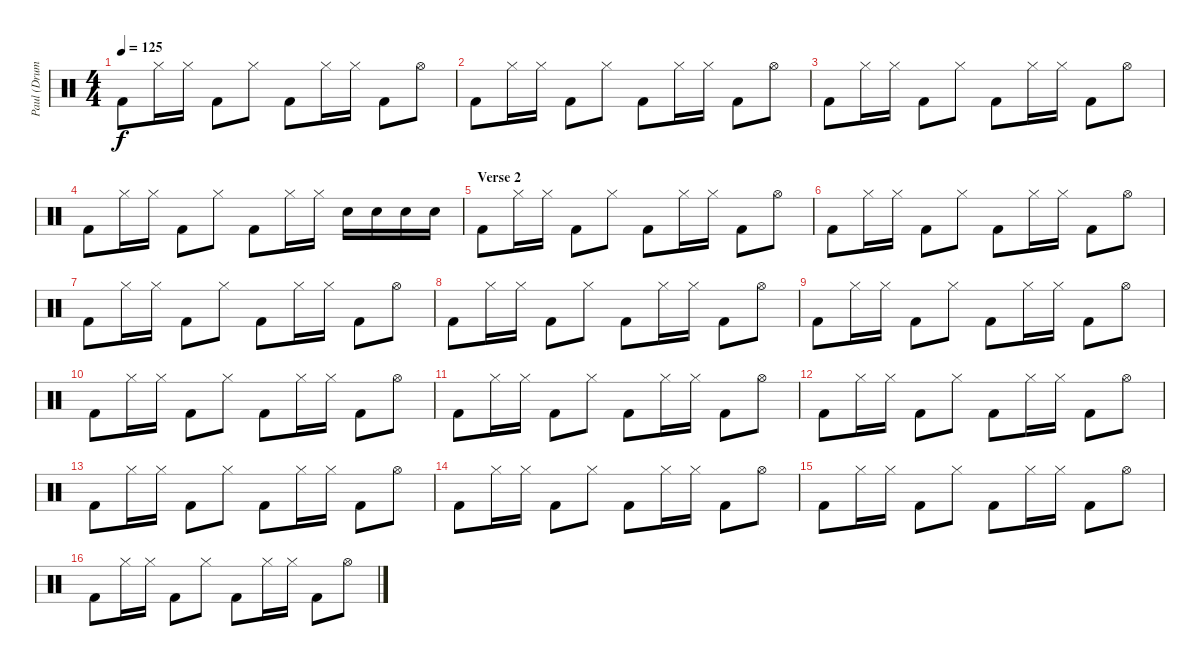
\track ("Paul (Drums)" "Paul (Drum") {instrument percussion}
\staff {score}
\articulation defaults
\ts (4 4)
\tempo 125
\clef neutral
\ks c "Kick (hit) 2".8{dy f} "Hi-Hat (closed)".16 "Hi-Hat (closed)".16 "Kick (hit) 2".8 "Hi-Hat (closed)".8 "Kick (hit) 2".8 "Hi-Hat (closed)".16 "Hi-Hat (closed)".16 "Kick (hit) 2".8 "Hi-Hat (open)".8
|
"Kick (hit) 2".8 "Hi-Hat (closed)".16 "Hi-Hat (closed)".16 "Kick (hit) 2".8 "Hi-Hat (closed)".8 "Kick (hit) 2".8 "Hi-Hat (closed)".16 "Hi-Hat (closed)".16 "Kick (hit) 2".8 "Hi-Hat (open)".8 |
"Kick (hit) 2".8 "Hi-Hat (closed)".16 "Hi-Hat (closed)".16 "Kick (hit) 2".8 "Hi-Hat (closed)".8 "Kick (hit) 2".8 "Hi-Hat (closed)".16 "Hi-Hat (closed)".16 "Kick (hit) 2".8 "Hi-Hat (open)".8 |
"Kick (hit) 2".8 "Hi-Hat (closed)".16 "Hi-Hat (closed)".16 "Kick (hit) 2".8 "Hi-Hat (closed)".8 "Kick (hit) 2".8 "Hi-Hat (closed)".16 "Hi-Hat (closed)".16 "Snare (hit) 2".16 "Snare (hit) 2".16 "Snare (hit) 2".16 "Snare (hit) 2".16 |
\section ("" "Verse 2")
"Kick (hit) 2".8 "Hi-Hat (closed)".16 "Hi-Hat (closed)".16 "Kick (hit) 2".8 "Hi-Hat (closed)".8 "Kick (hit) 2".8 "Hi-Hat (closed)".16 "Hi-Hat (closed)".16 "Kick (hit) 2".8 "Hi-Hat (open)".8 |
"Kick (hit) 2".8 "Hi-Hat (closed)".16 "Hi-Hat (closed)".16 "Kick (hit) 2".8 "Hi-Hat (closed)".8 "Kick (hit) 2".8 "Hi-Hat (closed)".16 "Hi-Hat (closed)".16 "Kick (hit) 2".8 "Hi-Hat (open)".8 |
"Kick (hit) 2".8 "Hi-Hat (closed)".16 "Hi-Hat (closed)".16 "Kick (hit) 2".8 "Hi-Hat (closed)".8 "Kick (hit) 2".8 "Hi-Hat (closed)".16 "Hi-Hat (closed)".16 "Kick (hit) 2".8 "Hi-Hat (open)".8 |
"Kick (hit) 2".8 "Hi-Hat (closed)".16 "Hi-Hat (closed)".16 "Kick (hit) 2".8 "Hi-Hat (closed)".8 "Kick (hit) 2".8 "Hi-Hat (closed)".16 "Hi-Hat (closed)".16 "Kick (hit) 2".8 "Hi-Hat (open)".8 |
"Kick (hit) 2".8 "Hi-Hat (closed)".16 "Hi-Hat (closed)".16 "Kick (hit) 2".8 "Hi-Hat (closed)".8 "Kick (hit) 2".8 "Hi-Hat (closed)".16 "Hi-Hat (closed)".16 "Kick (hit) 2".8 "Hi-Hat (open)".8 |
"Kick (hit) 2".8 "Hi-Hat (closed)".16 "Hi-Hat (closed)".16 "Kick (hit) 2".8 "Hi-Hat (closed)".8 "Kick (hit) 2".8 "Hi-Hat (closed)".16 "Hi-Hat (closed)".16 "Kick (hit) 2".8 "Hi-Hat (open)".8 |
"Kick (hit) 2".8 "Hi-Hat (closed)".16 "Hi-Hat (closed)".16 "Kick (hit) 2".8 "Hi-Hat (closed)".8 "Kick (hit) 2".8 "Hi-Hat (closed)".16 "Hi-Hat (closed)".16 "Kick (hit) 2".8 "Hi-Hat (open)".8 |
"Kick (hit) 2".8 "Hi-Hat (closed)".16 "Hi-Hat (closed)".16 "Kick (hit) 2".8 "Hi-Hat (closed)".8 "Kick (hit) 2".8 "Hi-Hat (closed)".16 "Hi-Hat (closed)".16 "Kick (hit) 2".8 "Hi-Hat (open)".8 |
"Kick (hit) 2".8 "Hi-Hat (closed)".16 "Hi-Hat (closed)".16 "Kick (hit) 2".8 "Hi-Hat (closed)".8 "Kick (hit) 2".8 "Hi-Hat (closed)".16 "Hi-Hat (closed)".16 "Kick (hit) 2".8 "Hi-Hat (open)".8 |
"Kick (hit) 2".8 "Hi-Hat (closed)".16 "Hi-Hat (closed)".16 "Kick (hit) 2".8 "Hi-Hat (closed)".8 "Kick (hit) 2".8 "Hi-Hat (closed)".16 "Hi-Hat (closed)".16 "Kick (hit) 2".8 "Hi-Hat (open)".8 |
"Kick (hit) 2".8 "Hi-Hat (closed)".16 "Hi-Hat (closed)".16 "Kick (hit) 2".8 "Hi-Hat (closed)".8 "Kick (hit) 2".8 "Hi-Hat (closed)".16 "Hi-Hat (closed)".16 "Kick (hit) 2".8 "Hi-Hat (open)".8 |
"Kick (hit) 2".8 "Hi-Hat (closed)".16 "Hi-Hat (closed)".16 "Kick (hit) 2".8 "Hi-Hat (closed)".8 "Kick (hit) 2".8 "Hi-Hat (closed)".16 "Hi-Hat (closed)".16 "Kick (hit) 2".8 "Hi-Hat (open)".8
